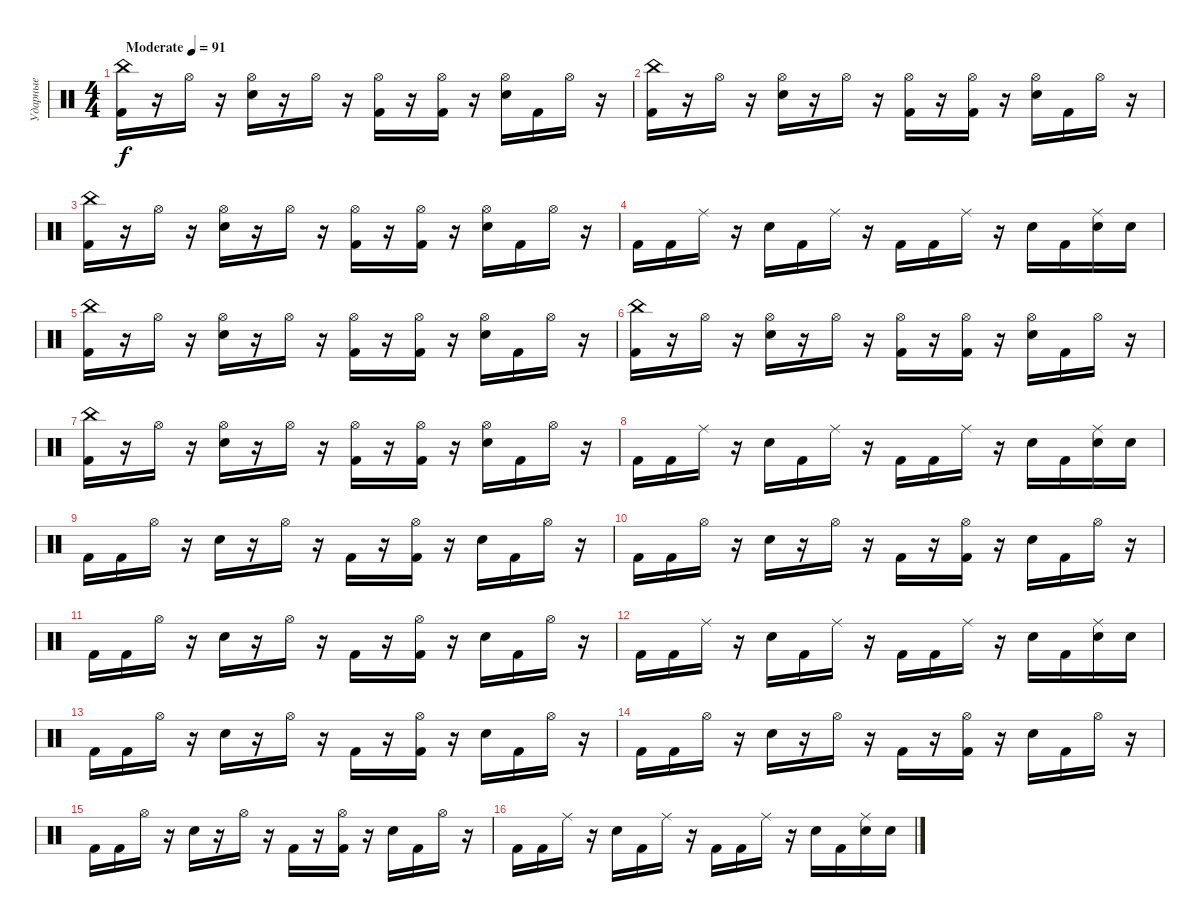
\track ("Ударные" "Ударные") {instrument percussion}
\staff {score}
\articulation defaults
\ts (4 4)
\tempo (91 "Moderate")
\clef neutral
\ks c
("China (hit)" "Kick (hit) 2").16{dy f} r.16 "Hi-Hat (open)".16 r.16 ("Hi-Hat (open)" "Snare (hit) 2").16 r.16 "Hi-Hat (open)".16 r.16 ("Hi-Hat (open)" "Kick (hit) 2").16 r.16 ("Hi-Hat (open)" "Kick (hit) 2").16 r.16 ("Hi-Hat (open)" "Snare (hit) 2").16 "Kick (hit) 2".16 "Hi-Hat (open)".16 r.16 |
("China (hit)" "Kick (hit) 2").16 r.16 "Hi-Hat (open)".16 r.16 ("Hi-Hat (open)" "Snare (hit) 2").16 r.16 "Hi-Hat (open)".16 r.16 ("Hi-Hat (open)" "Kick (hit) 2").16 r.16 ("Hi-Hat (open)" "Kick (hit) 2").16 r.16 ("Hi-Hat (open)" "Snare (hit) 2").16 "Kick (hit) 2".16 "Hi-Hat (open)".16 r.16 |
("China (hit)" "Kick (hit) 2").16 r.16 "Hi-Hat (open)".16 r.16 ("Hi-Hat (open)" "Snare (hit) 2").16 r.16 "Hi-Hat (open)".16 r.16 ("Hi-Hat (open)" "Kick (hit) 2").16 r.16 ("Hi-Hat (open)" "Kick (hit) 2").16 r.16 ("Hi-Hat (open)" "Snare (hit) 2").16 "Kick (hit) 2".16 "Hi-Hat (open)".16 r.16 |
"Kick (hit) 2".16 "Kick (hit) 2".16 "Ride (middle)".16 r.16 "Snare (hit) 2".16 "Kick (hit) 2".16 "Ride (middle)".16 r.16 "Kick (hit) 2".16 "Kick (hit) 2".16 "Ride (middle)".16 r.16 "Snare (hit) 2".16 "Kick (hit) 2".16 ("Ride (middle)" "Snare (hit) 2").16 "Snare (hit) 2".16 |
("China (hit)" "Kick (hit) 2").16 r.16 "Hi-Hat (open)".16 r.16 ("Hi-Hat (open)" "Snare (hit) 2").16 r.16 "Hi-Hat (open)".16 r.16 ("Hi-Hat (open)" "Kick (hit) 2").16 r.16 ("Hi-Hat (open)" "Kick (hit) 2").16 r.16 ("Hi-Hat (open)" "Snare (hit) 2").16 "Kick (hit) 2".16 "Hi-Hat (open)".16 r.16 |
("China (hit)" "Kick (hit) 2").16 r.16 "Hi-Hat (open)".16 r.16 ("Hi-Hat (open)" "Snare (hit) 2").16 r.16 "Hi-Hat (open)".16 r.16 ("Hi-Hat (open)" "Kick (hit) 2").16 r.16 ("Hi-Hat (open)" "Kick (hit) 2").16 r.16 ("Hi-Hat (open)" "Snare (hit) 2").16 "Kick (hit) 2".16 "Hi-Hat (open)".16 r.16 |
("China (hit)" "Kick (hit) 2").16 r.16 "Hi-Hat (open)".16 r.16 ("Hi-Hat (open)" "Snare (hit) 2").16 r.16 "Hi-Hat (open)".16 r.16 ("Hi-Hat (open)" "Kick (hit) 2").16 r.16 ("Hi-Hat (open)" "Kick (hit) 2").16 r.16 ("Hi-Hat (open)" "Snare (hit) 2").16 "Kick (hit) 2".16 "Hi-Hat (open)".16 r.16 |
"Kick (hit) 2".16 "Kick (hit) 2".16 "Ride (middle)".16 r.16 "Snare (hit) 2".16 "Kick (hit) 2".16 "Ride (middle)".16 r.16 "Kick (hit) 2".16 "Kick (hit) 2".16 "Ride (middle)".16 r.16 "Snare (hit) 2".16 "Kick (hit) 2".16 ("Ride (middle)" "Snare (hit) 2").16 "Snare (hit) 2".16 |
"Kick (hit) 2".16 "Kick (hit) 2".16 "Hi-Hat (open)".16 r.16 "Snare (hit) 2".16 r.16 "Hi-Hat (open)".16 r.16 "Kick (hit) 2".16 r.16 ("Hi-Hat (open)" "Kick (hit) 2").16 r.16 "Snare (hit) 2".16 "Kick (hit) 2".16 "Hi-Hat (open)".16 r.16 |
"Kick (hit) 2".16 "Kick (hit) 2".16 "Hi-Hat (open)".16 r.16 "Snare (hit) 2".16 r.16 "Hi-Hat (open)".16 r.16 "Kick (hit) 2".16 r.16 ("Hi-Hat (open)" "Kick (hit) 2").16 r.16 "Snare (hit) 2".16 "Kick (hit) 2".16 "Hi-Hat (open)".16 r.16 |
"Kick (hit) 2".16 "Kick (hit) 2".16 "Hi-Hat (open)".16 r.16 "Snare (hit) 2".16 r.16 "Hi-Hat (open)".16 r.16 "Kick (hit) 2".16 r.16 ("Hi-Hat (open)" "Kick (hit) 2").16 r.16 "Snare (hit) 2".16 "Kick (hit) 2".16 "Hi-Hat (open)".16 r.16 |
"Kick (hit) 2".16 "Kick (hit) 2".16 "Ride (middle)".16 r.16 "Snare (hit) 2".16 "Kick (hit) 2".16 "Ride (middle)".16 r.16 "Kick (hit) 2".16 "Kick (hit) 2".16 "Ride (middle)".16 r.16 "Snare (hit) 2".16 "Kick (hit) 2".16 ("Ride (middle)" "Snare (hit) 2").16 "Snare (hit) 2".16 |
"Kick (hit) 2".16 "Kick (hit) 2".16 "Hi-Hat (open)".16 r.16 "Snare (hit) 2".16 r.16 "Hi-Hat (open)".16 r.16 "Kick (hit) 2".16 r.16 ("Hi-Hat (open)" "Kick (hit) 2").16 r.16 "Snare (hit) 2".16 "Kick (hit) 2".16 "Hi-Hat (open)".16 r.16 |
"Kick (hit) 2".16 "Kick (hit) 2".16 "Hi-Hat (open)".16 r.16 "Snare (hit) 2".16 r.16 "Hi-Hat (open)".16 r.16 "Kick (hit) 2".16 r.16 ("Hi-Hat (open)" "Kick (hit) 2").16 r.16 "Snare (hit) 2".16 "Kick (hit) 2".16 "Hi-Hat (open)".16 r.16 |
"Kick (hit) 2".16 "Kick (hit) 2".16 "Hi-Hat (open)".16 r.16 "Snare (hit) 2".16 r.16 "Hi-Hat (open)".16 r.16 "Kick (hit) 2".16 r.16 ("Hi-Hat (open)" "Kick (hit) 2").16 r.16 "Snare (hit) 2".16 "Kick (hit) 2".16 "Hi-Hat (open)".16 r.16 |
"Kick (hit) 2".16 "Kick (hit) 2".16 "Ride (middle)".16 r.16 "Snare (hit) 2".16 "Kick (hit) 2".16 "Ride (middle)".16 r.16 "Kick (hit) 2".16 "Kick (hit) 2".16 "Ride (middle)".16 r.16 "Snare (hit) 2".16 "Kick (hit) 2".16 ("Ride (middle)" "Snare (hit) 2").16 "Snare (hit) 2".16
